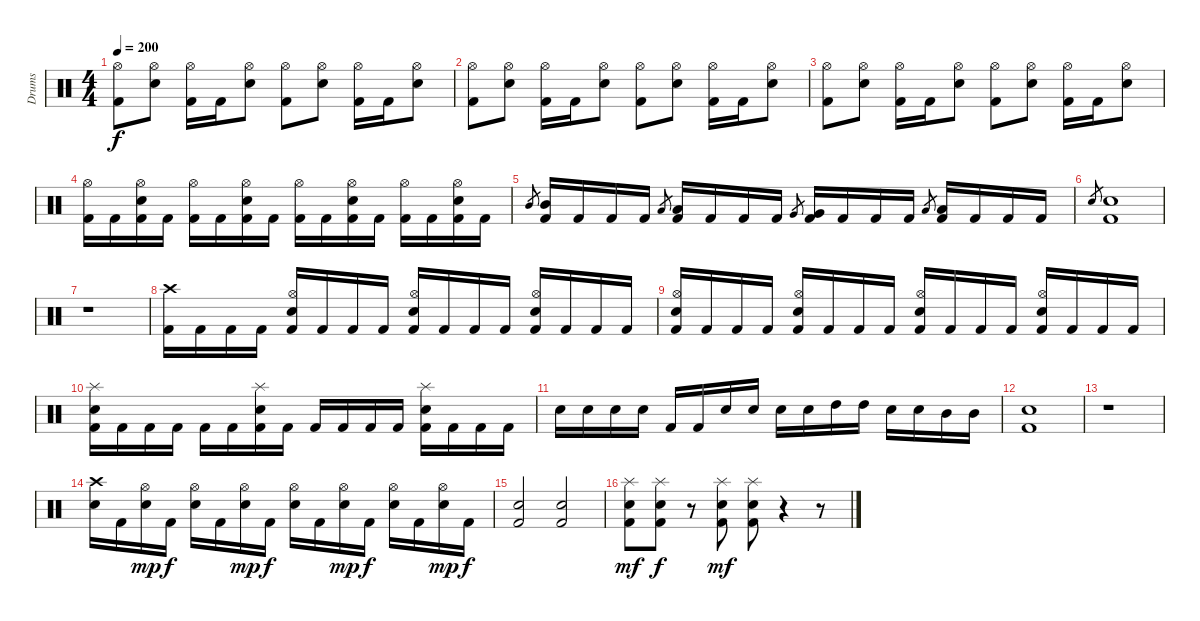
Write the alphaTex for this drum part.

\track ("Drums" "Drums") {instrument percussion}
\staff {score}
\articulation defaults
\ts (4 4)
\tempo 200
\clef neutral
\ks c
("Kick (hit) 2" "Hi-Hat (open)").8{dy f} ("Snare (hit) 2" "Hi-Hat (open)").8 ("Kick (hit) 2" "Hi-Hat (open)").16 "Kick (hit) 2".16 ("Snare (hit) 2" "Hi-Hat (open)").8 ("Kick (hit) 2" "Hi-Hat (open)").8 ("Snare (hit) 2" "Hi-Hat (open)").8 ("Kick (hit) 2" "Hi-Hat (open)").16 "Kick (hit) 2".16 ("Snare (hit) 2" "Hi-Hat (open)").8 |
("Kick (hit) 2" "Hi-Hat (open)").8 ("Snare (hit) 2" "Hi-Hat (open)").8 ("Kick (hit) 2" "Hi-Hat (open)").16 "Kick (hit) 2".16 ("Snare (hit) 2" "Hi-Hat (open)").8 ("Kick (hit) 2" "Hi-Hat (open)").8 ("Snare (hit) 2" "Hi-Hat (open)").8 ("Kick (hit) 2" "Hi-Hat (open)").16 "Kick (hit) 2".16 ("Snare (hit) 2" "Hi-Hat (open)").8 |
("Kick (hit) 2" "Hi-Hat (open)").8 ("Snare (hit) 2" "Hi-Hat (open)").8 ("Kick (hit) 2" "Hi-Hat (open)").16 "Kick (hit) 2".16 ("Snare (hit) 2" "Hi-Hat (open)").8 ("Kick (hit) 2" "Hi-Hat (open)").8 ("Snare (hit) 2" "Hi-Hat (open)").8 ("Kick (hit) 2" "Hi-Hat (open)").16 "Kick (hit) 2".16 ("Snare (hit) 2" "Hi-Hat (open)").8 |
("Kick (hit) 2" "Hi-Hat (open)").16 "Kick (hit) 2".16 ("Kick (hit) 2" "Snare (hit) 2" "Hi-Hat (open)").16 "Kick (hit) 2".16 ("Kick (hit) 2" "Hi-Hat (open)").16 "Kick (hit) 2".16 ("Kick (hit) 2" "Snare (hit) 2" "Hi-Hat (open)").16 "Kick (hit) 2".16 ("Kick (hit) 2" "Hi-Hat (open)").16 "Kick (hit) 2".16 ("Kick (hit) 2" "Snare (hit) 2" "Hi-Hat (open)").16 "Kick (hit) 2".16 ("Kick (hit) 2" "Hi-Hat (open)").16 "Kick (hit) 2".16 ("Kick (hit) 2" "Snare (hit) 2" "Hi-Hat (open)").16 "Kick (hit) 2".16 |
"Mid Tom (hit)".8{gr} ("Kick (hit) 2" "Mid Tom (hit)").16 "Kick (hit) 2".16 "Kick (hit) 2".16 "Kick (hit) 2".16 "Low Tom (hit)".8{gr} ("Kick (hit) 2" "Low Tom (hit)").16 "Kick (hit) 2".16 "Kick (hit) 2".16 "Kick (hit) 2".16 "Very Low Tom (hit)".8{gr} ("Kick (hit) 2" "Very Low Tom (hit)").16 "Kick (hit) 2".16 "Kick (hit) 2".16 "Kick (hit) 2".16 "Low Floor Tom (hit)".8{gr} ("Kick (hit) 2" "Low Floor Tom (hit)").16 "Kick (hit) 2".16 "Kick (hit) 2".16 "Kick (hit) 2".16 |
"Snare (hit) 2".8{gr} ("Kick (hit) 2" "Snare (hit) 2").1 |
r.1 |
("Kick (hit) 2" "Crash high (hit)").16 "Kick (hit) 2".16 "Kick (hit) 2".16 "Kick (hit) 2".16 ("Kick (hit) 2" "Snare (hit) 2" "Hi-Hat (open)").16 "Kick (hit) 2".16 "Kick (hit) 2".16 "Kick (hit) 2".16 ("Kick (hit) 2" "Snare (hit) 2" "Hi-Hat (open)").16 "Kick (hit) 2".16 "Kick (hit) 2".16 "Kick (hit) 2".16 ("Kick (hit) 2" "Snare (hit) 2" "Hi-Hat (open)").16 "Kick (hit) 2".16 "Kick (hit) 2".16 "Kick (hit) 2".16 |
("Kick (hit) 2" "Snare (hit) 2" "Hi-Hat (open)").16 "Kick (hit) 2".16 "Kick (hit) 2".16 "Kick (hit) 2".16 ("Kick (hit) 2" "Snare (hit) 2" "Hi-Hat (open)").16 "Kick (hit) 2".16 "Kick (hit) 2".16 "Kick (hit) 2".16 ("Kick (hit) 2" "Snare (hit) 2" "Hi-Hat (open)").16 "Kick (hit) 2".16 "Kick (hit) 2".16 "Kick (hit) 2".16 ("Kick (hit) 2" "Snare (hit) 2" "Hi-Hat (open)").16 "Kick (hit) 2".16 "Kick (hit) 2".16 "Kick (hit) 2".16 |
("Kick (hit) 2" "Snare (hit) 2" "Splash (hit)").16 "Kick (hit) 2".16 "Kick (hit) 2".16 "Kick (hit) 2".16 "Kick (hit) 2".16 "Kick (hit) 2".16 ("Kick (hit) 2" "Snare (hit) 2" "Splash (hit)").16 "Kick (hit) 2".16 "Kick (hit) 2".16 "Kick (hit) 2".16 "Kick (hit) 2".16 "Kick (hit) 2".16 ("Kick (hit) 2" "Snare (hit) 2" "Splash (hit)").16 "Kick (hit) 2".16 "Kick (hit) 2".16 "Kick (hit) 2".16 |
"Snare (hit) 2".16 "Snare (hit) 2".16 "Snare (hit) 2".16 "Snare (hit) 2".16 "Kick (hit) 2".16 "Kick (hit) 2".16 "Snare (hit) 2".16 "Snare (hit) 2".16 "Snare (hit) 2".16 "Snare (hit) 2".16 "High Tom (hit)".16 "High Tom (hit)".16 "Snare (hit) 2".16 "Snare (hit) 2".16 "Mid Tom (hit)".16 "Mid Tom (hit)".16 |
("Kick (hit) 2" "Snare (hit) 2").1 |
r.1 |
("Snare (hit) 2" "Crash high (hit)").16 "Kick (hit) 2".16 ("Snare (hit) 2" "Hi-Hat (open)").16{dy mp} "Kick (hit) 2".16{dy f} ("Snare (hit) 2" "Hi-Hat (open)").16 "Kick (hit) 2".16 ("Snare (hit) 2" "Hi-Hat (open)").16{dy mp} "Kick (hit) 2".16{dy f} ("Snare (hit) 2" "Hi-Hat (open)").16 "Kick (hit) 2".16 ("Snare (hit) 2" "Hi-Hat (open)").16{dy mp} "Kick (hit) 2".16{dy f} ("Snare (hit) 2" "Hi-Hat (open)").16 "Kick (hit) 2".16 ("Snare (hit) 2" "Hi-Hat (open)").16{dy mp} "Kick (hit) 2".16{dy f} |
("Kick (hit) 2" "Snare (hit) 2").2 ("Kick (hit) 2" "Snare (hit) 2").2 |
("Kick (hit) 2" "Snare (hit) 2" "Splash (hit)").8{dy mf} ("Kick (hit) 2" "Snare (hit) 2" "Splash (hit)").8{dy f} r.8 ("Kick (hit) 2" "Snare (hit) 2" "Splash (hit)").8{dy mf} ("Kick (hit) 2" "Snare (hit) 2" "Splash (hit)").8 r.4 r.8
